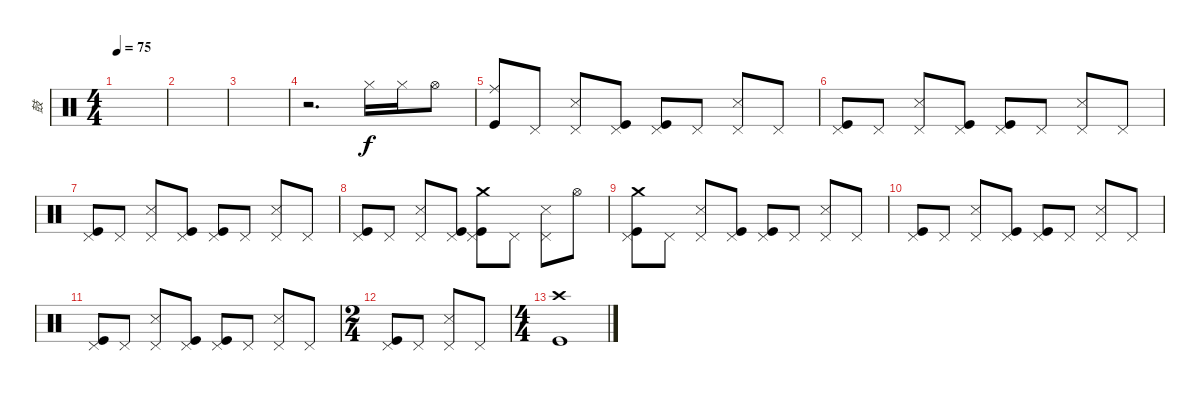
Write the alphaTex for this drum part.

\track ("鼓" "鼓") {instrument percussion}
\staff {score}
\articulation defaults
\ts (4 4)
\tempo 75
\clef neutral
\ks c
|
|
|
r.2{d} "Hi-Hat (closed)".16 "Hi-Hat (closed)".16 "Hi-Hat (open)".8 |
("Kick (hit)" "Ride (middle)").8 "Pedal Hi-Hat (hit)".8 ("Snare (side stick) 3" "Pedal Hi-Hat (hit)").8 ("Kick (hit)" "Pedal Hi-Hat (hit)").8 ("Kick (hit)" "Pedal Hi-Hat (hit)").8 "Pedal Hi-Hat (hit)".8 ("Snare (side stick) 3" "Pedal Hi-Hat (hit)").8 "Pedal Hi-Hat (hit)".8 |
("Kick (hit)" "Pedal Hi-Hat (hit)").8 "Pedal Hi-Hat (hit)".8 ("Snare (side stick) 3" "Pedal Hi-Hat (hit)").8 ("Kick (hit)" "Pedal Hi-Hat (hit)").8 ("Kick (hit)" "Pedal Hi-Hat (hit)").8 "Pedal Hi-Hat (hit)".8 ("Snare (side stick) 3" "Pedal Hi-Hat (hit)").8 "Pedal Hi-Hat (hit)".8 |
("Kick (hit)" "Pedal Hi-Hat (hit)").8 "Pedal Hi-Hat (hit)".8 ("Snare (side stick) 3" "Pedal Hi-Hat (hit)").8 ("Kick (hit)" "Pedal Hi-Hat (hit)").8 ("Kick (hit)" "Pedal Hi-Hat (hit)").8 "Pedal Hi-Hat (hit)".8 ("Snare (side stick) 3" "Pedal Hi-Hat (hit)").8 "Pedal Hi-Hat (hit)".8 |
("Kick (hit)" "Pedal Hi-Hat (hit)").8 "Pedal Hi-Hat (hit)".8 ("Snare (side stick) 3" "Pedal Hi-Hat (hit)").8 ("Kick (hit)" "Pedal Hi-Hat (hit)").8 ("Kick (hit)" "Pedal Hi-Hat (hit)" "Crash medium (hit)").8 "Pedal Hi-Hat (hit)".8 ("Snare (side stick) 3" "Pedal Hi-Hat (hit)").8 "Hi-Hat (open)".8 |
("Kick (hit)" "Pedal Hi-Hat (hit)" "Crash medium (hit)").8 "Pedal Hi-Hat (hit)".8 ("Snare (side stick) 3" "Pedal Hi-Hat (hit)").8 ("Kick (hit)" "Pedal Hi-Hat (hit)").8 ("Kick (hit)" "Pedal Hi-Hat (hit)").8 "Pedal Hi-Hat (hit)".8 ("Snare (side stick) 3" "Pedal Hi-Hat (hit)").8 "Pedal Hi-Hat (hit)".8 |
("Kick (hit)" "Pedal Hi-Hat (hit)").8 "Pedal Hi-Hat (hit)".8 ("Snare (side stick) 3" "Pedal Hi-Hat (hit)").8 ("Kick (hit)" "Pedal Hi-Hat (hit)").8 ("Kick (hit)" "Pedal Hi-Hat (hit)").8 "Pedal Hi-Hat (hit)".8 ("Snare (side stick) 3" "Pedal Hi-Hat (hit)").8 "Pedal Hi-Hat (hit)".8 |
("Kick (hit)" "Pedal Hi-Hat (hit)").8 "Pedal Hi-Hat (hit)".8 ("Snare (side stick) 3" "Pedal Hi-Hat (hit)").8 ("Kick (hit)" "Pedal Hi-Hat (hit)").8 ("Kick (hit)" "Pedal Hi-Hat (hit)").8 "Pedal Hi-Hat (hit)".8 ("Snare (side stick) 3" "Pedal Hi-Hat (hit)").8 "Pedal Hi-Hat (hit)".8 |
\ts (2 4)
("Kick (hit)" "Pedal Hi-Hat (hit)").8 "Pedal Hi-Hat (hit)".8 ("Snare (side stick) 3" "Pedal Hi-Hat (hit)").8 "Pedal Hi-Hat (hit)".8 |
\ts (4 4)
("Kick (hit)" "Crash high (hit)").1
